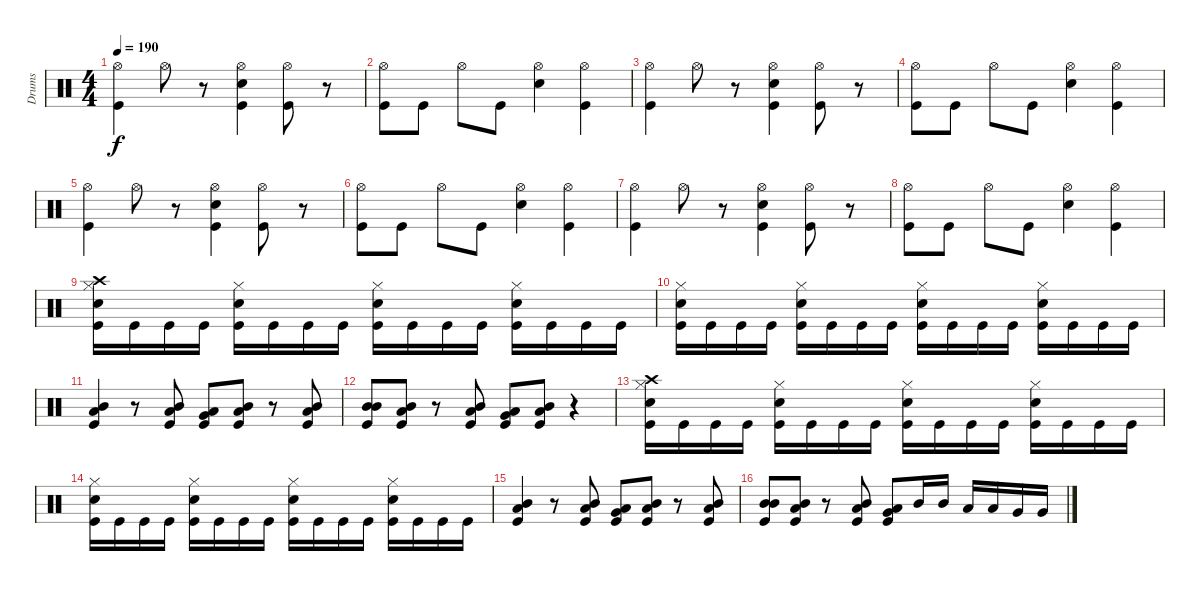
\track ("Drums" "Drums") {instrument percussion}
\staff {score}
\articulation defaults
\ts (4 4)
\tempo 190
\clef neutral
\ks c
("Hi-Hat (open)" "Kick (hit)").4{dy f} "Hi-Hat (open)".8 r.8 ("Hi-Hat (open)" "Snare (hit) 2" "Kick (hit)").4 ("Hi-Hat (open)" "Kick (hit)").8 r.8 |
("Hi-Hat (open)" "Kick (hit)").8 "Kick (hit)".8 "Hi-Hat (open)".8 "Kick (hit)".8 ("Hi-Hat (open)" "Snare (hit) 2").4 ("Hi-Hat (open)" "Kick (hit)").4 |
("Hi-Hat (open)" "Kick (hit)").4 "Hi-Hat (open)".8 r.8 ("Hi-Hat (open)" "Snare (hit) 2" "Kick (hit)").4 ("Hi-Hat (open)" "Kick (hit)").8 r.8 |
("Hi-Hat (open)" "Kick (hit)").8 "Kick (hit)".8 "Hi-Hat (open)".8 "Kick (hit)".8 ("Hi-Hat (open)" "Snare (hit) 2").4 ("Hi-Hat (open)" "Kick (hit)").4 |
("Hi-Hat (open)" "Kick (hit)").4 "Hi-Hat (open)".8 r.8 ("Hi-Hat (open)" "Snare (hit) 2" "Kick (hit)").4 ("Hi-Hat (open)" "Kick (hit)").8 r.8 |
("Hi-Hat (open)" "Kick (hit)").8 "Kick (hit)".8 "Hi-Hat (open)".8 "Kick (hit)".8 ("Hi-Hat (open)" "Snare (hit) 2").4 ("Hi-Hat (open)" "Kick (hit)").4 |
("Hi-Hat (open)" "Kick (hit)").4 "Hi-Hat (open)".8 r.8 ("Hi-Hat (open)" "Snare (hit) 2" "Kick (hit)").4 ("Hi-Hat (open)" "Kick (hit)").8 r.8 |
("Hi-Hat (open)" "Kick (hit)").8 "Kick (hit)".8 "Hi-Hat (open)".8 "Kick (hit)".8 ("Hi-Hat (open)" "Snare (hit) 2").4 ("Hi-Hat (open)" "Kick (hit)").4 |
("Crash high (hit)" "Hi-Hat (closed)" "Snare (hit) 2" "Kick (hit)").16 "Kick (hit)".16 "Kick (hit)".16 "Kick (hit)".16 ("Hi-Hat (closed)" "Snare (hit) 2" "Kick (hit)").16 "Kick (hit)".16 "Kick (hit)".16 "Kick (hit)".16 ("Hi-Hat (closed)" "Snare (hit) 2" "Kick (hit)").16 "Kick (hit)".16 "Kick (hit)".16 "Kick (hit)".16 ("Hi-Hat (closed)" "Snare (hit) 2" "Kick (hit)").16 "Kick (hit)".16 "Kick (hit)".16 "Kick (hit)".16 |
("Hi-Hat (closed)" "Snare (hit) 2" "Kick (hit)").16 "Kick (hit)".16 "Kick (hit)".16 "Kick (hit)".16 ("Hi-Hat (closed)" "Snare (hit) 2" "Kick (hit)").16 "Kick (hit)".16 "Kick (hit)".16 "Kick (hit)".16 ("Hi-Hat (closed)" "Snare (hit) 2" "Kick (hit)").16 "Kick (hit)".16 "Kick (hit)".16 "Kick (hit)".16 ("Hi-Hat (closed)" "Snare (hit) 2" "Kick (hit)").16 "Kick (hit)".16 "Kick (hit)".16 "Kick (hit)".16 |
("Low Tom (hit)" "Mid Tom (hit)" "Kick (hit)").4 r.8 ("Low Tom (hit)" "Mid Tom (hit)" "Kick (hit)").8 ("Very Low Tom (hit)" "Low Tom (hit)" "Kick (hit)").8 ("Low Tom (hit)" "Mid Tom (hit)" "Kick (hit)").8 r.8 ("Low Tom (hit)" "Mid Tom (hit)" "Kick (hit)").8 |
("Mid Tom (hit)" "Mid Tom (hit)" "Kick (hit)").8 ("Low Tom (hit)" "Mid Tom (hit)" "Kick (hit)").8 r.8 ("Low Tom (hit)" "Mid Tom (hit)" "Kick (hit)").8 ("Very Low Tom (hit)" "Low Tom (hit)" "Kick (hit)").8 ("Low Tom (hit)" "Mid Tom (hit)" "Kick (hit)").8 r.4 |
("Crash high (hit)" "Hi-Hat (closed)" "Snare (hit) 2" "Kick (hit)").16 "Kick (hit)".16 "Kick (hit)".16 "Kick (hit)".16 ("Hi-Hat (closed)" "Snare (hit) 2" "Kick (hit)").16 "Kick (hit)".16 "Kick (hit)".16 "Kick (hit)".16 ("Hi-Hat (closed)" "Snare (hit) 2" "Kick (hit)").16 "Kick (hit)".16 "Kick (hit)".16 "Kick (hit)".16 ("Hi-Hat (closed)" "Snare (hit) 2" "Kick (hit)").16 "Kick (hit)".16 "Kick (hit)".16 "Kick (hit)".16 |
("Hi-Hat (closed)" "Snare (hit) 2" "Kick (hit)").16 "Kick (hit)".16 "Kick (hit)".16 "Kick (hit)".16 ("Hi-Hat (closed)" "Snare (hit) 2" "Kick (hit)").16 "Kick (hit)".16 "Kick (hit)".16 "Kick (hit)".16 ("Hi-Hat (closed)" "Snare (hit) 2" "Kick (hit)").16 "Kick (hit)".16 "Kick (hit)".16 "Kick (hit)".16 ("Hi-Hat (closed)" "Snare (hit) 2" "Kick (hit)").16 "Kick (hit)".16 "Kick (hit)".16 "Kick (hit)".16 |
("Low Tom (hit)" "Mid Tom (hit)" "Kick (hit)").4 r.8 ("Low Tom (hit)" "Mid Tom (hit)" "Kick (hit)").8 ("Very Low Tom (hit)" "Low Tom (hit)" "Kick (hit)").8 ("Low Tom (hit)" "Mid Tom (hit)" "Kick (hit)").8 r.8 ("Low Tom (hit)" "Mid Tom (hit)" "Kick (hit)").8 |
("Mid Tom (hit)" "Mid Tom (hit)" "Kick (hit)").8 ("Low Tom (hit)" "Mid Tom (hit)" "Kick (hit)").8 r.8 ("Low Tom (hit)" "Mid Tom (hit)" "Kick (hit)").8 ("Very Low Tom (hit)" "Low Tom (hit)" "Kick (hit)").8 "Mid Tom (hit)".16 "Mid Tom (hit)".16 "Low Tom (hit)".16 "Low Tom (hit)".16 "Very Low Tom (hit)".16 "Very Low Tom (hit)".16
